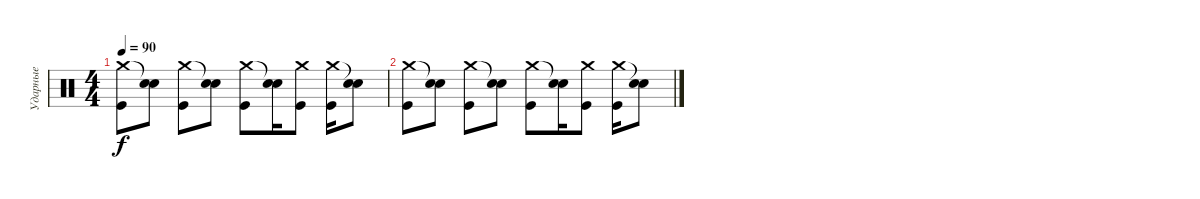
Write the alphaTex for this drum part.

\track ("Ударные" "Ударные") {instrument percussion}
\staff {score}
\articulation defaults
\ts (4 4)
\tempo 90
\clef neutral
\ks c
("Crash medium (hit)" "Kick (hit)").8{dy f} ("Snare (hit)"{t} "Snare (hit) 2").8 ("Crash medium (hit)" "Kick (hit)").8 ("Snare (hit)"{t} "Snare (hit) 2").8 ("Crash medium (hit)" "Kick (hit)").8 ("Snare (hit)"{t} "Snare (hit) 2").16 ("Crash medium (hit)" "Kick (hit)").8 ("Crash medium (hit)" "Kick (hit)").16 ("Snare (hit)"{t} "Snare (hit) 2").8 |
("Crash medium (hit)" "Kick (hit)").8 ("Snare (hit)"{t} "Snare (hit) 2").8 ("Crash medium (hit)" "Kick (hit)").8 ("Snare (hit)"{t} "Snare (hit) 2").8 ("Crash medium (hit)" "Kick (hit)").8 ("Snare (hit)"{t} "Snare (hit) 2").16 ("Crash medium (hit)" "Kick (hit)").8 ("Crash medium (hit)" "Kick (hit)").16 ("Snare (hit)"{t} "Snare (hit) 2").8
